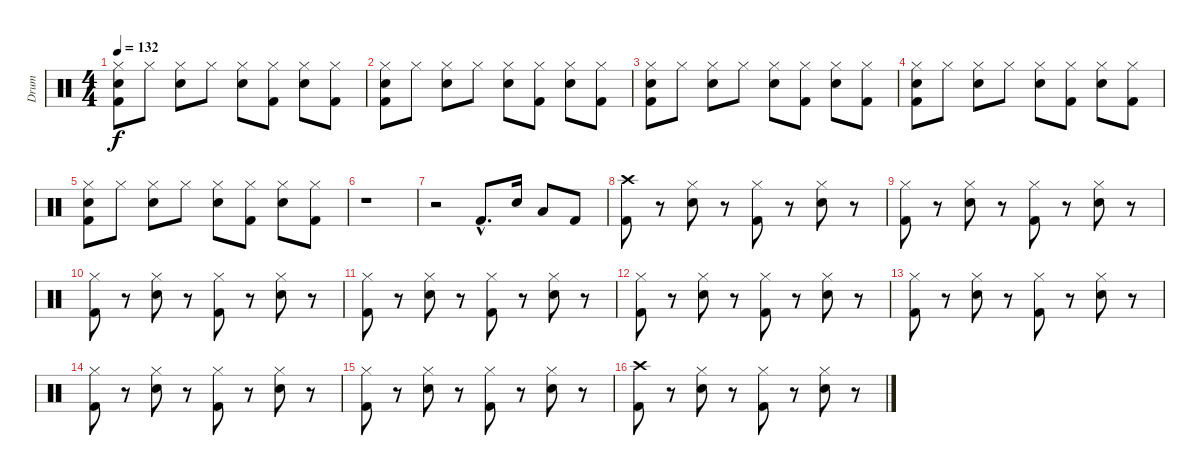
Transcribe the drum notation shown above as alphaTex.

\track ("Drum" "Drum") {instrument percussion}
\staff {score}
\articulation defaults
\ts (4 4)
\tempo 132
\clef neutral
\ks c
("Hi-Hat (closed)" "Electric Snare (hit)" "Kick (hit) 2").8{dy f} "Hi-Hat (closed)".8 ("Hi-Hat (closed)" "Electric Snare (hit)").8 "Hi-Hat (closed)".8 ("Hi-Hat (closed)" "Electric Snare (hit)").8 ("Hi-Hat (closed)" "Kick (hit) 2").8 ("Hi-Hat (closed)" "Electric Snare (hit)").8 ("Hi-Hat (closed)" "Kick (hit) 2").8 |
("Hi-Hat (closed)" "Electric Snare (hit)" "Kick (hit) 2").8 "Hi-Hat (closed)".8 ("Hi-Hat (closed)" "Electric Snare (hit)").8 "Hi-Hat (closed)".8 ("Hi-Hat (closed)" "Electric Snare (hit)").8 ("Hi-Hat (closed)" "Kick (hit) 2").8 ("Hi-Hat (closed)" "Electric Snare (hit)").8 ("Hi-Hat (closed)" "Kick (hit) 2").8 |
("Hi-Hat (closed)" "Electric Snare (hit)" "Kick (hit) 2").8 "Hi-Hat (closed)".8 ("Hi-Hat (closed)" "Electric Snare (hit)").8 "Hi-Hat (closed)".8 ("Hi-Hat (closed)" "Electric Snare (hit)").8 ("Hi-Hat (closed)" "Kick (hit) 2").8 ("Hi-Hat (closed)" "Electric Snare (hit)").8 ("Hi-Hat (closed)" "Kick (hit) 2").8 |
("Hi-Hat (closed)" "Electric Snare (hit)" "Kick (hit) 2").8 "Hi-Hat (closed)".8 ("Hi-Hat (closed)" "Electric Snare (hit)").8 "Hi-Hat (closed)".8 ("Hi-Hat (closed)" "Electric Snare (hit)").8 ("Hi-Hat (closed)" "Kick (hit) 2").8 ("Hi-Hat (closed)" "Electric Snare (hit)").8 ("Hi-Hat (closed)" "Kick (hit) 2").8 |
("Hi-Hat (closed)" "Electric Snare (hit)" "Kick (hit) 2").8 "Hi-Hat (closed)".8 ("Hi-Hat (closed)" "Electric Snare (hit)").8 "Hi-Hat (closed)".8 ("Hi-Hat (closed)" "Electric Snare (hit)").8 ("Hi-Hat (closed)" "Kick (hit) 2").8 ("Hi-Hat (closed)" "Electric Snare (hit)").8 ("Hi-Hat (closed)" "Kick (hit) 2").8 |
r.1 |
r.2 "Kick (hit) 2"{hac}.8{d} "Electric Snare (hit)".16 "Low Tom (hit)".8 "Kick (hit) 2".8 |
("Crash high (hit)" "Kick (hit) 2").8 r.8 ("Hi-Hat (closed)" "Electric Snare (hit)").8 r.8 ("Hi-Hat (closed)" "Kick (hit) 2").8 r.8 ("Hi-Hat (closed)" "Electric Snare (hit)").8 r.8 |
("Hi-Hat (closed)" "Kick (hit) 2").8 r.8 ("Hi-Hat (closed)" "Electric Snare (hit)").8 r.8 ("Hi-Hat (closed)" "Kick (hit) 2").8 r.8 ("Hi-Hat (closed)" "Electric Snare (hit)").8 r.8 |
("Hi-Hat (closed)" "Kick (hit) 2").8 r.8 ("Hi-Hat (closed)" "Electric Snare (hit)").8 r.8 ("Hi-Hat (closed)" "Kick (hit) 2").8 r.8 ("Hi-Hat (closed)" "Electric Snare (hit)").8 r.8 |
("Hi-Hat (closed)" "Kick (hit) 2").8 r.8 ("Hi-Hat (closed)" "Electric Snare (hit)").8 r.8 ("Hi-Hat (closed)" "Kick (hit) 2").8 r.8 ("Hi-Hat (closed)" "Electric Snare (hit)").8 r.8 |
("Hi-Hat (closed)" "Kick (hit) 2").8 r.8 ("Hi-Hat (closed)" "Electric Snare (hit)").8 r.8 ("Hi-Hat (closed)" "Kick (hit) 2").8 r.8 ("Hi-Hat (closed)" "Electric Snare (hit)").8 r.8 |
("Hi-Hat (closed)" "Kick (hit) 2").8 r.8 ("Hi-Hat (closed)" "Electric Snare (hit)").8 r.8 ("Hi-Hat (closed)" "Kick (hit) 2").8 r.8 ("Hi-Hat (closed)" "Electric Snare (hit)").8 r.8 |
("Hi-Hat (closed)" "Kick (hit) 2").8 r.8 ("Hi-Hat (closed)" "Electric Snare (hit)").8 r.8 ("Hi-Hat (closed)" "Kick (hit) 2").8 r.8 ("Hi-Hat (closed)" "Electric Snare (hit)").8 r.8 |
("Hi-Hat (closed)" "Kick (hit) 2").8 r.8 ("Hi-Hat (closed)" "Electric Snare (hit)").8 r.8 ("Hi-Hat (closed)" "Kick (hit) 2").8 r.8 ("Hi-Hat (closed)" "Electric Snare (hit)").8 r.8 |
("Crash high (hit)" "Kick (hit) 2").8 r.8 ("Hi-Hat (closed)" "Electric Snare (hit)").8 r.8 ("Hi-Hat (closed)" "Kick (hit) 2").8 r.8 ("Hi-Hat (closed)" "Electric Snare (hit)").8 r.8
